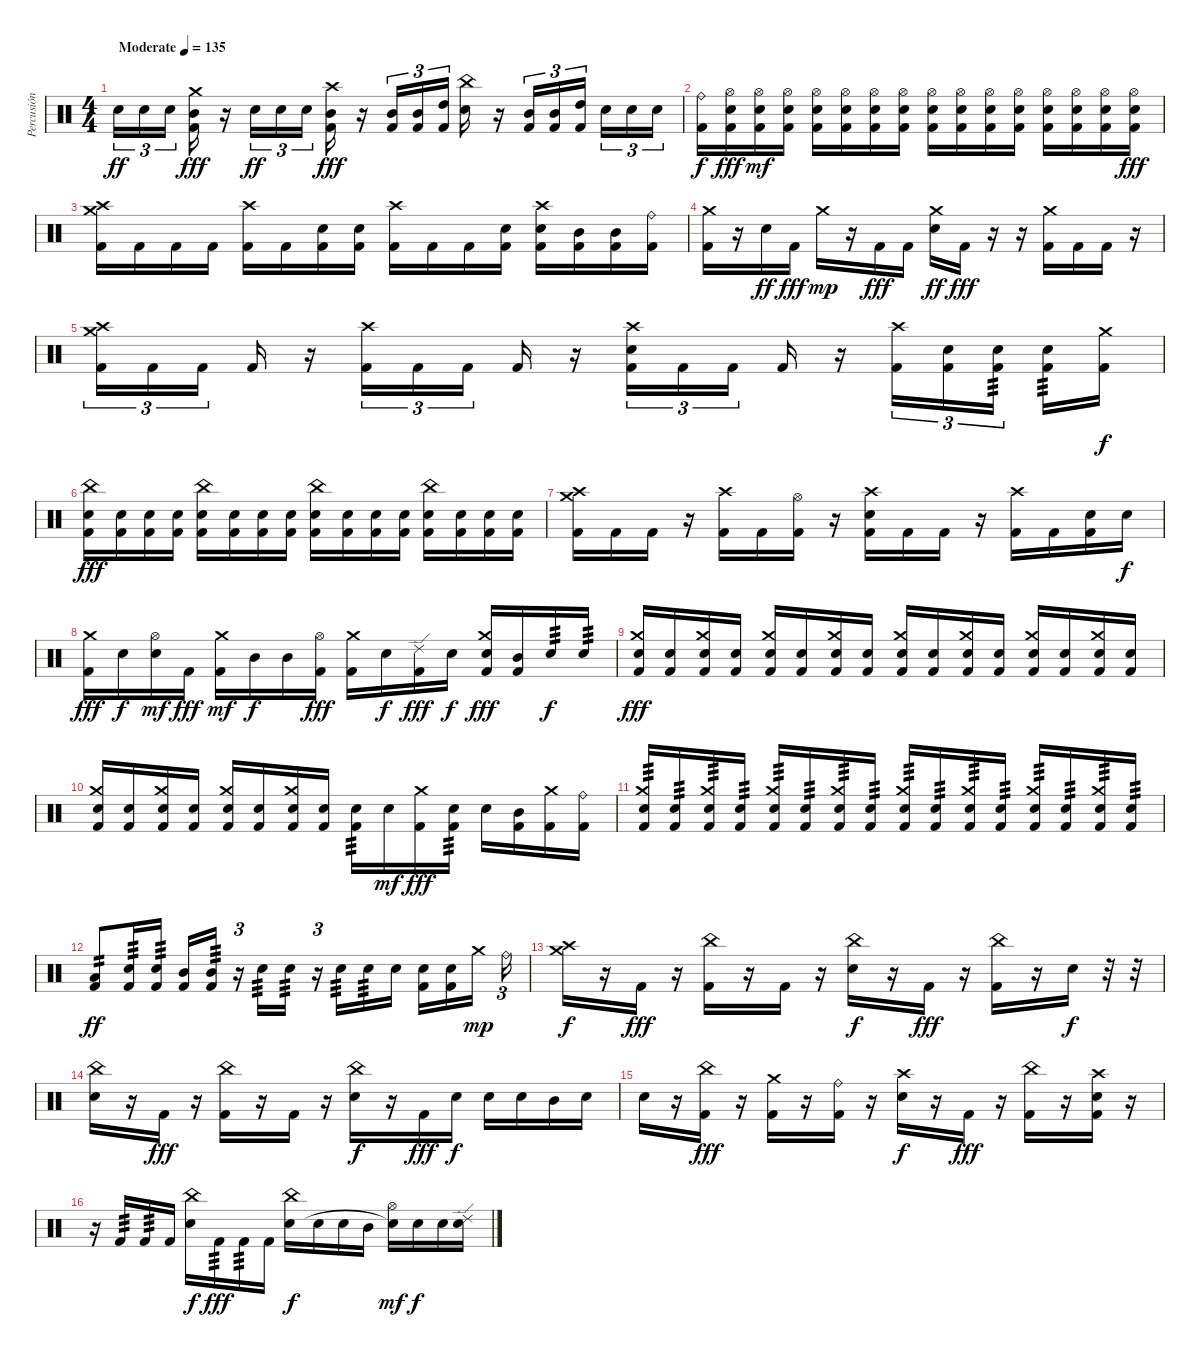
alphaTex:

\track ("Percusión" "Percusión") {instrument percussion}
\staff {score}
\articulation defaults
\ts (4 4)
\tempo (135 "Moderate")
\clef neutral
\ks c "Snare (hit) 2".16{tu (3 2) dy ff} "Snare (hit) 2".16{tu (3 2)} "Snare (hit) 2".16{tu (3 2) beam splitsecondary}
("Crash medium (hit)" "Mid Tom (hit)" "Kick (hit) 2").16{dy fff} r.16 "Snare (hit) 2".16{tu (3 2) dy ff} "Snare (hit) 2".16{tu (3 2)} "Snare (hit) 2".16{tu (3 2) beam splitsecondary} ("Crash high (hit)" "Mid Tom (hit)" "Kick (hit) 2").16{dy fff} r.16 ("Mid Tom (hit)" "Kick (hit) 2").16{tu (3 2)} ("Mid Tom (hit)" "Kick (hit) 2").16{tu (3 2)} ("High Tom (hit)" "Kick (hit) 2").16{tu (3 2) beam splitsecondary} ("China (hit)" "Snare (hit) 2").16 r.16 ("Mid Tom (hit)" "Kick (hit) 2").16{tu (3 2)} ("Mid Tom (hit)" "Kick (hit) 2").16{tu (3 2)} ("High Tom (hit)" "Kick (hit) 2").16{tu (3 2) beam splitsecondary} "Snare (hit) 2".16{tu (3 2)} "Snare (hit) 2".16{tu (3 2)} "Snare (hit) 2".16{tu (3 2)} |
("Ride (bell)" "Kick (hit) 2").16{dy f} ("Hi-Hat (open)" "Snare (hit) 2" "Kick (hit) 2").16{dy fff} ("Hi-Hat (open)" "Snare (hit) 2" "Kick (hit) 2").16{dy mf} ("Hi-Hat (open)" "Snare (hit) 2" "Kick (hit) 2").16 ("Hi-Hat (open)" "Snare (hit) 2" "Kick (hit) 2").16 ("Hi-Hat (open)" "Snare (hit) 2" "Kick (hit) 2").16 ("Hi-Hat (open)" "Snare (hit) 2" "Kick (hit) 2").16 ("Hi-Hat (open)" "Snare (hit) 2" "Kick (hit) 2").16 ("Hi-Hat (open)" "Snare (hit) 2" "Kick (hit) 2").16 ("Hi-Hat (open)" "Snare (hit) 2" "Kick (hit) 2").16 ("Hi-Hat (open)" "Snare (hit) 2" "Kick (hit) 2").16 ("Hi-Hat (open)" "Snare (hit) 2" "Kick (hit) 2").16 ("Hi-Hat (open)" "Snare (hit) 2" "Kick (hit) 2").16 ("Hi-Hat (open)" "Snare (hit) 2" "Kick (hit) 2").16 ("Hi-Hat (open)" "Snare (hit) 2" "Kick (hit) 2").16 ("Hi-Hat (open)" "Snare (hit) 2" "Kick (hit) 2").16{dy fff} |
("Crash high (hit)" "Crash medium (hit)" "Kick (hit) 2").16 "Kick (hit) 2".16 "Kick (hit) 2".16 "Kick (hit) 2".16 ("Crash high (hit)" "Kick (hit) 2").16 "Kick (hit) 2".16 ("Snare (hit) 2" "Kick (hit) 2").16 ("Snare (hit) 2" "Kick (hit) 2").16 ("Crash high (hit)" "Kick (hit) 2").16 "Kick (hit) 2".16 "Kick (hit) 2".16 ("Snare (hit) 2" "Kick (hit) 2").16 ("Crash high (hit)" "Snare (hit) 2" "Kick (hit) 2").16 ("Mid Tom (hit)" "Kick (hit) 2").16 ("Mid Tom (hit)" "Kick (hit) 2").16 ("Ride (bell)" "Kick (hit) 2").16 |
("Crash medium (hit)" "Kick (hit) 2").16 r.16 "Snare (hit) 2".16{dy ff} "Kick (hit) 2".16{dy fff} "Crash medium (hit)".16{dy mp} r.16 "Kick (hit) 2".16{dy fff} "Kick (hit) 2".16 ("Crash medium (hit)" "Snare (hit) 2").16{dy ff} "Kick (hit) 2".16{dy fff} r.16 r.16 ("Crash medium (hit)" "Kick (hit) 2").16 "Kick (hit) 2".16 "Kick (hit) 2".16 r.16 |
("Crash high (hit)" "Crash medium (hit)" "Kick (hit) 2").16{tu (3 2)} "Kick (hit) 2".16{tu (3 2)} "Kick (hit) 2".16{tu (3 2) beam splitsecondary} "Kick (hit) 2".16 r.16 ("Crash high (hit)" "Kick (hit) 2").16{tu (3 2)} "Kick (hit) 2".16{tu (3 2)} "Kick (hit) 2".16{tu (3 2) beam splitsecondary} "Kick (hit) 2".16 r.16 ("Crash high (hit)" "Snare (hit) 2" "Kick (hit) 2").16{tu (3 2)} "Kick (hit) 2".16{tu (3 2)} "Kick (hit) 2".16{tu (3 2) beam splitsecondary} "Kick (hit) 2".16 r.16 ("Crash high (hit)" "Kick (hit) 2").16{tu (3 2)} ("Snare (hit) 2" "Kick (hit) 2").16{tu (3 2)} ("Snare (hit) 2" "Kick (hit) 2").16{tu (3 2) tp 3 beam splitsecondary} ("Snare (hit) 2" "Kick (hit) 2").16{tp 3} ("Crash medium (hit)" "Kick (hit) 2").16{dy f} |
("China (hit)" "Snare (hit) 2" "Kick (hit) 2").16{dy fff} ("Snare (hit) 2" "Kick (hit) 2").16 ("Snare (hit) 2" "Kick (hit) 2").16 ("Snare (hit) 2" "Kick (hit) 2").16 ("China (hit)" "Snare (hit) 2" "Kick (hit) 2").16 ("Snare (hit) 2" "Kick (hit) 2").16 ("Snare (hit) 2" "Kick (hit) 2").16 ("Snare (hit) 2" "Kick (hit) 2").16 ("China (hit)" "Snare (hit) 2" "Kick (hit) 2").16 ("Snare (hit) 2" "Kick (hit) 2").16 ("Snare (hit) 2" "Kick (hit) 2").16 ("Snare (hit) 2" "Kick (hit) 2").16 ("China (hit)" "Snare (hit) 2" "Kick (hit) 2").16 ("Snare (hit) 2" "Kick (hit) 2").16 ("Snare (hit) 2" "Kick (hit) 2").16 ("Snare (hit) 2" "Kick (hit) 2").16 |
("Crash high (hit)" "Crash medium (hit)" "Kick (hit) 2").16 "Kick (hit) 2".16 "Kick (hit) 2".16 r.16 ("Crash high (hit)" "Kick (hit) 2").16 "Kick (hit) 2".16 ("Hi-Hat (open)" "Kick (hit) 2").16 r.16 ("Crash high (hit)" "Snare (hit) 2" "Kick (hit) 2").16 "Kick (hit) 2".16 "Kick (hit) 2".16 r.16 ("Crash high (hit)" "Kick (hit) 2").16 "Kick (hit) 2".16 ("Snare (hit) 2" "Kick (hit) 2").16 "Snare (hit) 2".16{dy f} |
("Crash medium (hit)" "Kick (hit) 2").16{dy fff} "Snare (hit) 2".16{dy f} ("Hi-Hat (open)" "Snare (hit) 2").16{dy mf} "Kick (hit) 2".16{dy fff} ("Crash medium (hit)" "Kick (hit) 2").16{dy mf} "Mid Tom (hit)".16{dy f} "Mid Tom (hit)".16 ("Hi-Hat (open)" "Kick (hit) 2").16{dy fff} ("Crash medium (hit)" "Kick (hit) 2").16 "Snare (hit) 2".16{dy f} ("Ride (edge) 2" "Kick (hit) 2").16{dy fff} "Snare (hit) 2".16{dy f} ("Crash medium (hit)" "Snare (hit) 2" "Kick (hit) 2").16{dy fff} ("Mid Tom (hit)" "Kick (hit) 2").16 "Snare (hit) 2".16{tp 3 dy f} "Snare (hit) 2".16{tp 3} |
("Crash medium (hit)" "Snare (hit) 2" "Kick (hit) 2").16{dy fff} ("Snare (hit) 2" "Kick (hit) 2").16 ("Crash medium (hit)" "Snare (hit) 2" "Kick (hit) 2").16 ("Snare (hit) 2" "Kick (hit) 2").16 ("Crash medium (hit)" "Snare (hit) 2" "Kick (hit) 2").16 ("Snare (hit) 2" "Kick (hit) 2").16 ("Crash medium (hit)" "Snare (hit) 2" "Kick (hit) 2").16 ("Snare (hit) 2" "Kick (hit) 2").16 ("Crash medium (hit)" "Snare (hit) 2" "Kick (hit) 2").16 ("Snare (hit) 2" "Kick (hit) 2").16 ("Crash medium (hit)" "Snare (hit) 2" "Kick (hit) 2").16 ("Snare (hit) 2" "Kick (hit) 2").16 ("Crash medium (hit)" "Snare (hit) 2" "Kick (hit) 2").16 ("Snare (hit) 2" "Kick (hit) 2").16 ("Crash medium (hit)" "Snare (hit) 2" "Kick (hit) 2").16 ("Snare (hit) 2" "Kick (hit) 2").16 |
("Crash medium (hit)" "Snare (hit) 2" "Kick (hit) 2").16 ("Snare (hit) 2" "Kick (hit) 2").16 ("Crash medium (hit)" "Snare (hit) 2" "Kick (hit) 2").16 ("Snare (hit) 2" "Kick (hit) 2").16 ("Crash medium (hit)" "Snare (hit) 2" "Kick (hit) 2").16 ("Snare (hit) 2" "Kick (hit) 2").16 ("Crash medium (hit)" "Snare (hit) 2" "Kick (hit) 2").16 ("Snare (hit) 2" "Kick (hit) 2").16 ("Snare (hit) 2" "Kick (hit) 2").16{tp 3} "Snare (hit) 2".16{dy mf} ("Crash medium (hit)" "Kick (hit) 2").16{dy fff} ("Snare (hit) 2" "Kick (hit) 2").16{tp 3} "Snare (hit) 2".16 ("Mid Tom (hit)" "Kick (hit) 2").16 ("Crash medium (hit)" "Kick (hit) 2").16 ("Ride (bell)" "Kick (hit) 2").16 |
("Crash medium (hit)" "Snare (hit) 2" "Kick (hit) 2").16{tp 3} ("Snare (hit) 2" "Kick (hit) 2").16{tp 3} ("Crash medium (hit)" "Snare (hit) 2" "Kick (hit) 2").16{tp 3} ("Snare (hit) 2" "Kick (hit) 2").16{tp 3} ("Crash medium (hit)" "Snare (hit) 2" "Kick (hit) 2").16{tp 3} ("Snare (hit) 2" "Kick (hit) 2").16{tp 3} ("Crash medium (hit)" "Snare (hit) 2" "Kick (hit) 2").16{tp 3} ("Snare (hit) 2" "Kick (hit) 2").16{tp 3} ("Crash medium (hit)" "Snare (hit) 2" "Kick (hit) 2").16{tp 3} ("Snare (hit) 2" "Kick (hit) 2").16{tp 3} ("Crash medium (hit)" "Snare (hit) 2" "Kick (hit) 2").16{tp 3} ("Snare (hit) 2" "Kick (hit) 2").16{tp 3} ("Crash medium (hit)" "Snare (hit) 2" "Kick (hit) 2").16{tp 3} ("Snare (hit) 2" "Kick (hit) 2").16{tp 3} ("Crash medium (hit)" "Snare (hit) 2" "Kick (hit) 2").16{tp 3} ("Snare (hit) 2" "Kick (hit) 2").16{tp 3} |
("Low Tom (hit)" "Kick (hit) 2").8{tp 2 dy ff} ("Snare (hit) 2" "Kick (hit) 2").16{tp 3} ("Snare (hit) 2" "Kick (hit) 2").16{tp 3} ("Mid Tom (hit)" "Kick (hit) 2").16 ("Mid Tom (hit)" "Kick (hit) 2").16{tp 3} r.16{tu (3 2)} "Snare (hit) 2".16{tp 3} "Snare (hit) 2".16{tp 3} r.16{tu (3 2)} "Snare (hit) 2".16{tp 3} "Snare (hit) 2".16{tp 3} "Snare (hit) 2".16 ("Snare (hit) 2" "Kick (hit) 2").16 ("Snare (hit) 2" "Kick (hit) 2").16 "Crash medium (hit)".16{dy mp beam splitsecondary} "Ride (bell)".16{tu (3 2)} |
("Crash high (hit)" "Crash medium (hit)").16{dy f} r.16 "Kick (hit) 2".16{dy fff} r.16 ("China (hit)" "Kick (hit) 2").16 r.16 "Kick (hit) 2".16 r.16 ("China (hit)" "Snare (hit) 2").16{dy f} r.16 "Kick (hit) 2".16{dy fff} r.16 ("China (hit)" "Kick (hit) 2").16 r.16 "Snare (hit) 2".16{dy f} r.32 r.32 |
("China (hit)" "Snare (hit) 2").16 r.16 "Kick (hit) 2".16{dy fff} r.16 ("China (hit)" "Kick (hit) 2").16 r.16 "Kick (hit) 2".16 r.16 ("China (hit)" "Snare (hit) 2").16{dy f} r.16 "Kick (hit) 2".16{dy fff} "Snare (hit) 2".16{dy f} "Snare (hit) 2".16 "Snare (hit) 2".16 "Mid Tom (hit)".16 "Snare (hit) 2".16 |
"Snare (hit) 2".16 r.16 ("China (hit)" "Kick (hit) 2").16{dy fff} r.16 ("Crash medium (hit)" "Kick (hit) 2").16 r.16 ("Ride (bell)" "Kick (hit) 2").16 r.16 ("Crash high (hit)" "Snare (hit) 2").16{dy f} r.16 "Kick (hit) 2".16{dy fff} r.16 ("China (hit)" "Kick (hit) 2").16 r.16 ("Crash high (hit)" "Snare (hit) 2" "Kick (hit) 2").16 r.16 |
r.16 "Kick (hit) 2".16{tp 3} "Kick (hit) 2".16{tp 3} "Kick (hit) 2".16 ("China (hit)" "Snare (hit) 2").16{dy f} "Kick (hit) 2".16{tp 3 dy fff} "Kick (hit) 2".16{tp 3} "Kick (hit) 2".16 ("China (hit)" "Snare (hit) 2").16{dy f} "Snare (hit) 2".16 "Snare (hit) 2".16 "Mid Tom (hit)".16 ("Hi-Hat (open)" "Snare (hit)"{t}).16{dy mf} "Snare (hit) 2".16{dy f} "Snare (hit) 2".16 ("Ride (edge) 2" "Snare (hit) 2").16
